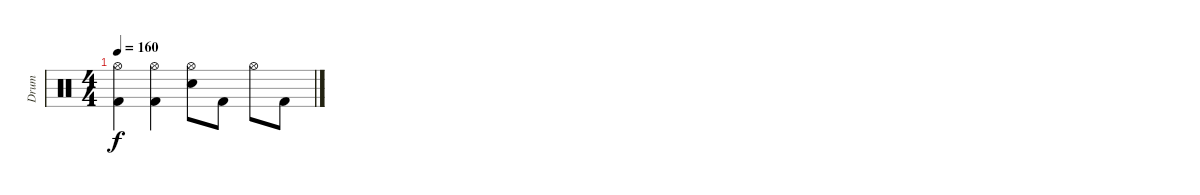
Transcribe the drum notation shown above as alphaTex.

\track ("Drum" "Drum") {instrument percussion}
\staff {score}
\articulation defaults
\ts (4 4)
\tempo 160
\clef neutral
\ks c
("Hi-Hat (open)" "Kick (hit) 2").4{dy f volume 1} ("Hi-Hat (open)" "Kick (hit) 2").4 ("Hi-Hat (open)" "Electric Snare (hit)").8 "Kick (hit) 2".8 "Hi-Hat (open)".8 "Kick (hit) 2".8
